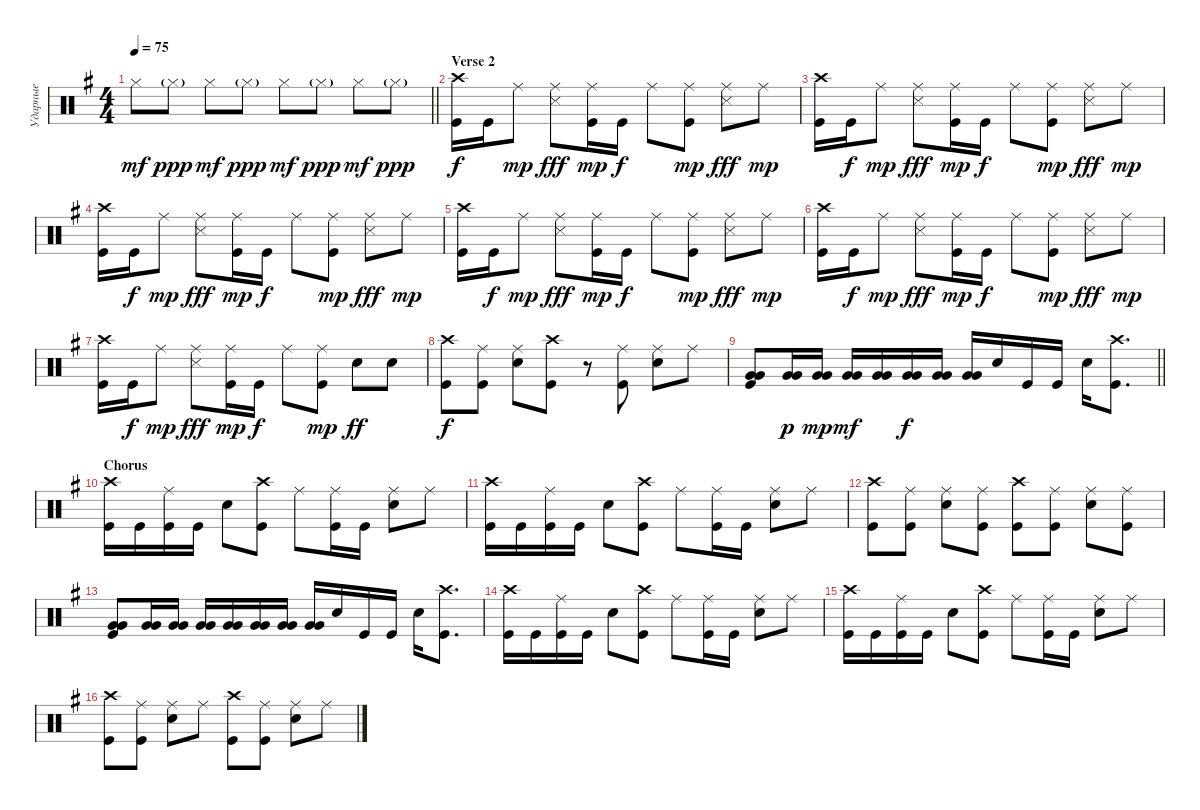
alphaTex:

\track ("Ударные" "Ударные") {instrument percussion}
\staff {score}
\articulation defaults
\ts (4 4)
\tempo 75
\clef neutral
\barLineRight lightlight
\ks eminor "Hi-Hat (closed)".8{dy mf} "Hi-Hat (closed)"{g}.8{dy ppp} "Hi-Hat (closed)".8{dy mf} "Hi-Hat (closed)"{g}.8{dy ppp} "Hi-Hat (closed)".8{dy mf} "Hi-Hat (closed)"{g}.8{dy ppp} "Hi-Hat (closed)".8{dy mf} "Hi-Hat (closed)"{g}.8{dy ppp}
|
\section ("" "Verse 2")
("Kick (hit)" "Crash high (hit)").16{dy f} "Kick (hit)".16 "Ride (middle)".8{dy mp} ("Ride (middle)" "Snare (side stick) 3").8{dy fff} ("Kick (hit)" "Ride (middle)").16{dy mp} "Kick (hit)".16{dy f} "Ride (middle)".8 ("Ride (middle)" "Kick (hit)").8{dy mp} ("Ride (middle)" "Snare (side stick) 3").8{dy fff} "Ride (middle)".8{dy mp} |
("Kick (hit)" "Crash high (hit)").16 "Kick (hit)".16{dy f} "Ride (middle)".8{dy mp} ("Ride (middle)" "Snare (side stick) 3").8{dy fff} ("Kick (hit)" "Ride (middle)").16{dy mp} "Kick (hit)".16{dy f} "Ride (middle)".8 ("Ride (middle)" "Kick (hit)").8{dy mp} ("Ride (middle)" "Snare (side stick) 3").8{dy fff} "Ride (middle)".8{dy mp} |
("Kick (hit)" "Crash high (hit)").16 "Kick (hit)".16{dy f} "Ride (middle)".8{dy mp} ("Ride (middle)" "Snare (side stick) 3").8{dy fff} ("Kick (hit)" "Ride (middle)").16{dy mp} "Kick (hit)".16{dy f} "Ride (middle)".8 ("Ride (middle)" "Kick (hit)").8{dy mp} ("Ride (middle)" "Snare (side stick) 3").8{dy fff} "Ride (middle)".8{dy mp} |
("Kick (hit)" "Crash high (hit)").16 "Kick (hit)".16{dy f} "Ride (middle)".8{dy mp} ("Ride (middle)" "Snare (side stick) 3").8{dy fff} ("Kick (hit)" "Ride (middle)").16{dy mp} "Kick (hit)".16{dy f} "Ride (middle)".8 ("Ride (middle)" "Kick (hit)").8{dy mp} ("Ride (middle)" "Snare (side stick) 3").8{dy fff} "Ride (middle)".8{dy mp} |
("Kick (hit)" "Crash high (hit)").16 "Kick (hit)".16{dy f} "Ride (middle)".8{dy mp} ("Ride (middle)" "Snare (side stick) 3").8{dy fff} ("Kick (hit)" "Ride (middle)").16{dy mp} "Kick (hit)".16{dy f} "Ride (middle)".8 ("Ride (middle)" "Kick (hit)").8{dy mp} ("Ride (middle)" "Snare (side stick) 3").8{dy fff} "Ride (middle)".8{dy mp} |
("Kick (hit)" "Crash high (hit)").16 "Kick (hit)".16{dy f} "Ride (middle)".8{dy mp} ("Ride (middle)" "Snare (side stick) 3").8{dy fff} ("Kick (hit)" "Ride (middle)").16{dy mp} "Kick (hit)".16{dy f} "Ride (middle)".8 ("Ride (middle)" "Kick (hit)").8{dy mp} "Snare (hit) 2".8{dy ff} "Snare (hit) 2".8 |
("Kick (hit)" "Crash high (hit)").8{dy f} ("Kick (hit)" "Ride (middle)").8 ("Snare (hit) 2" "Ride (middle)").8 ("Kick (hit)" "Crash high (hit)").8 r.8 ("Kick (hit)" "Ride (middle)").8 ("Snare (hit) 2" "Ride (middle)").8 "Ride (middle)".8 |
\barLineRight lightlight
("Kick (hit)" "Very Low Tom (hit)" "Very Low Tom (hit)").8{bd 60} ("Very Low Tom (hit)" "Very Low Tom (hit)").16{bd 60 dy p} ("Very Low Tom (hit)" "Very Low Tom (hit)").16{bd 60 dy mp} ("Very Low Tom (hit)" "Very Low Tom (hit)").16{bd 60 dy mf} ("Very Low Tom (hit)" "Very Low Tom (hit)").16{bd 60} ("Very Low Tom (hit)" "Very Low Tom (hit)").16{bd 60 dy f} ("Very Low Tom (hit)" "Very Low Tom (hit)").16{bd 60} ("Very Low Tom (hit)" "Very Low Tom (hit)").16{bd 60} "Snare (hit) 2".16 "Kick (hit)".16 "Kick (hit)".16 "Snare (hit) 2".16 ("Kick (hit)" "Crash high (hit)").8{d} |
\section ("" "Chorus")
("Kick (hit)" "Crash high (hit)").16 "Kick (hit)".16 ("Kick (hit)" "Ride (middle)").16 "Kick (hit)".16 "Snare (hit) 2".8 ("Kick (hit)" "Crash high (hit)").8 "Ride (middle)".8 ("Kick (hit)" "Ride (middle)").16 "Kick (hit)".16 ("Snare (hit) 2" "Ride (middle)").8 "Ride (middle)".8 |
("Kick (hit)" "Crash high (hit)").16 "Kick (hit)".16 ("Kick (hit)" "Ride (middle)").16 "Kick (hit)".16 "Snare (hit) 2".8 ("Kick (hit)" "Crash high (hit)").8 "Ride (middle)".8 ("Kick (hit)" "Ride (middle)").16 "Kick (hit)".16 ("Snare (hit) 2" "Ride (middle)").8 "Ride (middle)".8 |
("Kick (hit)" "Crash high (hit)").8 ("Kick (hit)" "Ride (middle)").8 ("Snare (hit) 2" "Ride (middle)").8 ("Kick (hit)" "Ride (middle)").8 ("Kick (hit)" "Crash high (hit)").8 ("Kick (hit)" "Ride (middle)").8 ("Snare (hit) 2" "Ride (middle)").8 ("Kick (hit)" "Ride (middle)").8 |
("Kick (hit)" "Very Low Tom (hit)" "Very Low Tom (hit)").8{bd 60} ("Very Low Tom (hit)" "Very Low Tom (hit)").16{bd 60} ("Very Low Tom (hit)" "Very Low Tom (hit)").16{bd 60} ("Very Low Tom (hit)" "Very Low Tom (hit)").16{bd 60} ("Very Low Tom (hit)" "Very Low Tom (hit)").16{bd 60} ("Very Low Tom (hit)" "Very Low Tom (hit)").16{bd 60} ("Very Low Tom (hit)" "Very Low Tom (hit)").16{bd 60} ("Very Low Tom (hit)" "Very Low Tom (hit)").16{bd 60} "Snare (hit) 2".16 "Kick (hit)".16 "Kick (hit)".16 "Snare (hit) 2".16 ("Kick (hit)" "Crash high (hit)").8{d} |
("Kick (hit)" "Crash high (hit)").16 "Kick (hit)".16 ("Kick (hit)" "Ride (middle)").16 "Kick (hit)".16 "Snare (hit) 2".8 ("Kick (hit)" "Crash high (hit)").8 "Ride (middle)".8 ("Kick (hit)" "Ride (middle)").16 "Kick (hit)".16 ("Snare (hit) 2" "Ride (middle)").8 "Ride (middle)".8 |
("Kick (hit)" "Crash high (hit)").16 "Kick (hit)".16 ("Kick (hit)" "Ride (middle)").16 "Kick (hit)".16 "Snare (hit) 2".8 ("Kick (hit)" "Crash high (hit)").8 "Ride (middle)".8 ("Kick (hit)" "Ride (middle)").16 "Kick (hit)".16 ("Snare (hit) 2" "Ride (middle)").8 "Ride (middle)".8 |
("Kick (hit)" "Crash high (hit)").8 ("Kick (hit)" "Ride (middle)").8 ("Snare (hit) 2" "Ride (middle)").8 "Ride (middle)".8 ("Kick (hit)" "Crash high (hit)").8 ("Kick (hit)" "Ride (middle)").8 ("Snare (hit) 2" "Ride (middle)").8 "Ride (middle)".8
